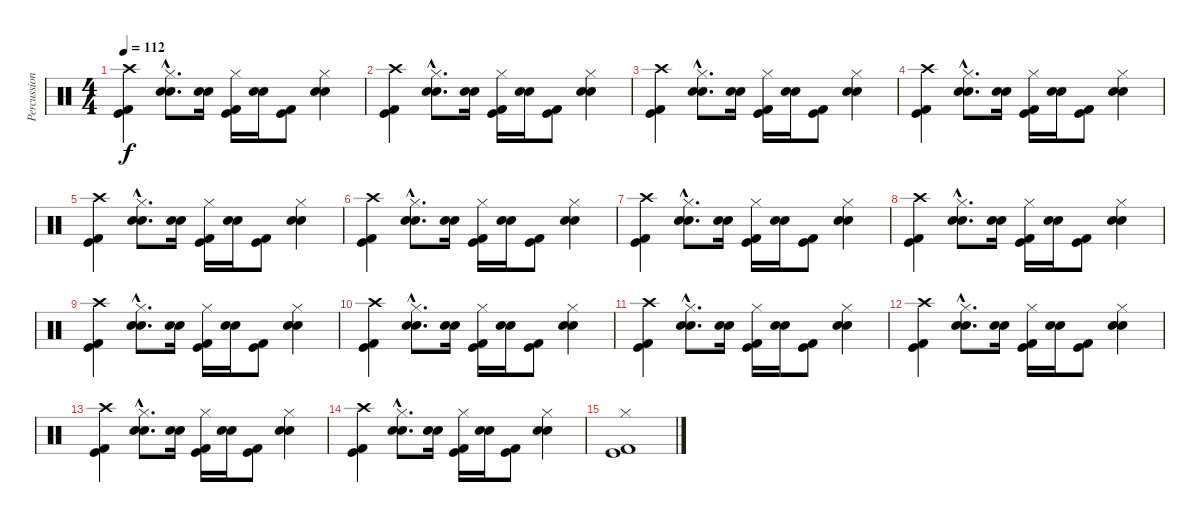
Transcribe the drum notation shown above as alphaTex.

\track ("Percussions" "Percussion") {instrument percussion}
\staff {score}
\articulation defaults
\ts (4 4)
\tempo 112
\clef neutral
\ks c
("Crash high (hit)" "Kick (hit)" "Kick (hit) 2").4{dy f} ("Hi-Hat (closed)"{hac} "Snare (hit) 2"{hac} "Electric Snare (hit)"{hac}).8{d} ("Snare (hit) 2" "Electric Snare (hit)").16 ("Hi-Hat (closed)" "Kick (hit)" "Kick (hit) 2").16 ("Snare (hit) 2" "Electric Snare (hit)").16 ("Kick (hit)" "Kick (hit) 2").8 ("Hi-Hat (closed)" "Snare (hit) 2" "Electric Snare (hit)").4 |
("Crash high (hit)" "Kick (hit)" "Kick (hit) 2").4 ("Hi-Hat (closed)"{hac} "Snare (hit) 2"{hac} "Electric Snare (hit)"{hac}).8{d} ("Snare (hit) 2" "Electric Snare (hit)").16 ("Hi-Hat (closed)" "Kick (hit)" "Kick (hit) 2").16 ("Snare (hit) 2" "Electric Snare (hit)").16 ("Kick (hit)" "Kick (hit) 2").8 ("Hi-Hat (closed)" "Snare (hit) 2" "Electric Snare (hit)").4 |
("Crash high (hit)" "Kick (hit)" "Kick (hit) 2").4 ("Hi-Hat (closed)"{hac} "Snare (hit) 2"{hac} "Electric Snare (hit)"{hac}).8{d} ("Snare (hit) 2" "Electric Snare (hit)").16 ("Hi-Hat (closed)" "Kick (hit)" "Kick (hit) 2").16 ("Snare (hit) 2" "Electric Snare (hit)").16 ("Kick (hit)" "Kick (hit) 2").8 ("Hi-Hat (closed)" "Snare (hit) 2" "Electric Snare (hit)").4 |
("Crash high (hit)" "Kick (hit)" "Kick (hit) 2").4 ("Hi-Hat (closed)"{hac} "Snare (hit) 2"{hac} "Electric Snare (hit)"{hac}).8{d} ("Snare (hit) 2" "Electric Snare (hit)").16 ("Hi-Hat (closed)" "Kick (hit)" "Kick (hit) 2").16 ("Snare (hit) 2" "Electric Snare (hit)").16 ("Kick (hit)" "Kick (hit) 2").8 ("Hi-Hat (closed)" "Snare (hit) 2" "Electric Snare (hit)").4 |
("Crash high (hit)" "Kick (hit)" "Kick (hit) 2").4 ("Hi-Hat (closed)"{hac} "Snare (hit) 2"{hac} "Electric Snare (hit)"{hac}).8{d} ("Snare (hit) 2" "Electric Snare (hit)").16 ("Hi-Hat (closed)" "Kick (hit)" "Kick (hit) 2").16 ("Snare (hit) 2" "Electric Snare (hit)").16 ("Kick (hit)" "Kick (hit) 2").8 ("Hi-Hat (closed)" "Snare (hit) 2" "Electric Snare (hit)").4 |
("Crash high (hit)" "Kick (hit)" "Kick (hit) 2").4 ("Hi-Hat (closed)"{hac} "Snare (hit) 2"{hac} "Electric Snare (hit)"{hac}).8{d} ("Snare (hit) 2" "Electric Snare (hit)").16 ("Hi-Hat (closed)" "Kick (hit)" "Kick (hit) 2").16 ("Snare (hit) 2" "Electric Snare (hit)").16 ("Kick (hit)" "Kick (hit) 2").8 ("Hi-Hat (closed)" "Snare (hit) 2" "Electric Snare (hit)").4 |
("Crash high (hit)" "Kick (hit)" "Kick (hit) 2").4 ("Hi-Hat (closed)"{hac} "Snare (hit) 2"{hac} "Electric Snare (hit)"{hac}).8{d} ("Snare (hit) 2" "Electric Snare (hit)").16 ("Hi-Hat (closed)" "Kick (hit)" "Kick (hit) 2").16 ("Snare (hit) 2" "Electric Snare (hit)").16 ("Kick (hit)" "Kick (hit) 2").8 ("Hi-Hat (closed)" "Snare (hit) 2" "Electric Snare (hit)").4 |
("Crash high (hit)" "Kick (hit)" "Kick (hit) 2").4 ("Hi-Hat (closed)"{hac} "Snare (hit) 2"{hac} "Electric Snare (hit)"{hac}).8{d} ("Snare (hit) 2" "Electric Snare (hit)").16 ("Hi-Hat (closed)" "Kick (hit)" "Kick (hit) 2").16 ("Snare (hit) 2" "Electric Snare (hit)").16 ("Kick (hit)" "Kick (hit) 2").8 ("Hi-Hat (closed)" "Snare (hit) 2" "Electric Snare (hit)").4 |
("Crash high (hit)" "Kick (hit)" "Kick (hit) 2").4 ("Hi-Hat (closed)"{hac} "Snare (hit) 2"{hac} "Electric Snare (hit)"{hac}).8{d} ("Snare (hit) 2" "Electric Snare (hit)").16 ("Hi-Hat (closed)" "Kick (hit)" "Kick (hit) 2").16 ("Snare (hit) 2" "Electric Snare (hit)").16 ("Kick (hit)" "Kick (hit) 2").8 ("Hi-Hat (closed)" "Snare (hit) 2" "Electric Snare (hit)").4 |
("Crash high (hit)" "Kick (hit)" "Kick (hit) 2").4 ("Hi-Hat (closed)"{hac} "Snare (hit) 2"{hac} "Electric Snare (hit)"{hac}).8{d} ("Snare (hit) 2" "Electric Snare (hit)").16 ("Hi-Hat (closed)" "Kick (hit)" "Kick (hit) 2").16 ("Snare (hit) 2" "Electric Snare (hit)").16 ("Kick (hit)" "Kick (hit) 2").8 ("Hi-Hat (closed)" "Snare (hit) 2" "Electric Snare (hit)").4 |
("Crash high (hit)" "Kick (hit)" "Kick (hit) 2").4 ("Hi-Hat (closed)"{hac} "Snare (hit) 2"{hac} "Electric Snare (hit)"{hac}).8{d} ("Snare (hit) 2" "Electric Snare (hit)").16 ("Hi-Hat (closed)" "Kick (hit)" "Kick (hit) 2").16 ("Snare (hit) 2" "Electric Snare (hit)").16 ("Kick (hit)" "Kick (hit) 2").8 ("Hi-Hat (closed)" "Snare (hit) 2" "Electric Snare (hit)").4 |
("Crash high (hit)" "Kick (hit)" "Kick (hit) 2").4 ("Hi-Hat (closed)"{hac} "Snare (hit) 2"{hac} "Electric Snare (hit)"{hac}).8{d} ("Snare (hit) 2" "Electric Snare (hit)").16 ("Hi-Hat (closed)" "Kick (hit)" "Kick (hit) 2").16 ("Snare (hit) 2" "Electric Snare (hit)").16 ("Kick (hit)" "Kick (hit) 2").8 ("Hi-Hat (closed)" "Snare (hit) 2" "Electric Snare (hit)").4 |
("Crash high (hit)" "Kick (hit)" "Kick (hit) 2").4 ("Hi-Hat (closed)"{hac} "Snare (hit) 2"{hac} "Electric Snare (hit)"{hac}).8{d} ("Snare (hit) 2" "Electric Snare (hit)").16 ("Hi-Hat (closed)" "Kick (hit)" "Kick (hit) 2").16 ("Snare (hit) 2" "Electric Snare (hit)").16 ("Kick (hit)" "Kick (hit) 2").8 ("Hi-Hat (closed)" "Snare (hit) 2" "Electric Snare (hit)").4 |
("Crash high (hit)" "Kick (hit)" "Kick (hit) 2").4 ("Hi-Hat (closed)"{hac} "Snare (hit) 2"{hac} "Electric Snare (hit)"{hac}).8{d} ("Snare (hit) 2" "Electric Snare (hit)").16 ("Hi-Hat (closed)" "Kick (hit)" "Kick (hit) 2").16 ("Snare (hit) 2" "Electric Snare (hit)").16 ("Kick (hit)" "Kick (hit) 2").8 ("Hi-Hat (closed)" "Snare (hit) 2" "Electric Snare (hit)").4 |
("Hi-Hat (closed)" "Kick (hit)" "Kick (hit) 2").1
